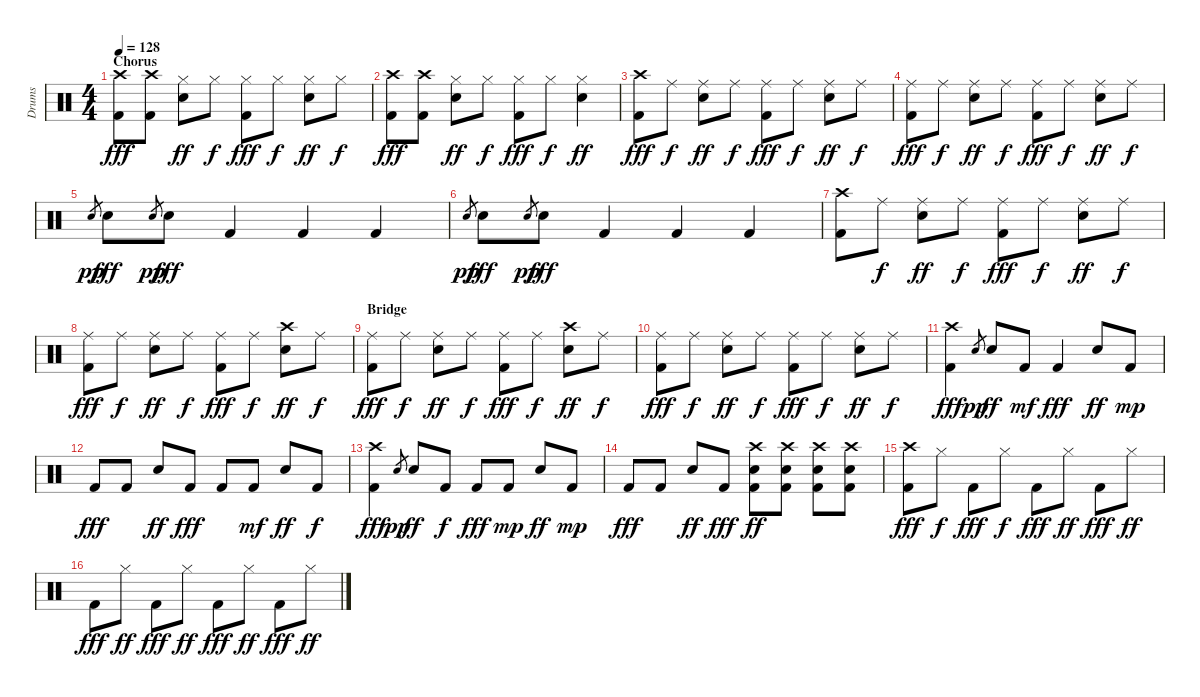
\track ("Drums" "Drums") {instrument percussion}
\staff {score}
\articulation defaults
\ts (4 4)
\section ("" "Chorus")
\tempo 128
\clef neutral
\ks c
("Crash high (hit)" "Kick (hit) 2").8{dy fff} ("Crash high (hit)" "Kick (hit) 2").8 ("Hi-Hat (closed)" "Electric Snare (hit)").8{dy ff} "Hi-Hat (closed)".8{dy f} ("Hi-Hat (closed)" "Kick (hit) 2").8{dy fff} "Hi-Hat (closed)".8{dy f} ("Hi-Hat (closed)" "Electric Snare (hit)").8{dy ff} "Hi-Hat (closed)".8{dy f} |
("Crash high (hit)" "Kick (hit) 2").8{dy fff} ("Crash high (hit)" "Kick (hit) 2").8 ("Hi-Hat (closed)" "Electric Snare (hit)").8{dy ff} "Hi-Hat (closed)".8{dy f} ("Hi-Hat (closed)" "Kick (hit) 2").8{dy fff} "Hi-Hat (closed)".8{dy f} ("Hi-Hat (closed)" "Electric Snare (hit)").4{dy ff} |
("Crash high (hit)" "Kick (hit) 2").8{dy fff} "Ride (middle)".8{dy f} ("Ride (middle)" "Electric Snare (hit)").8{dy ff} "Ride (middle)".8{dy f} ("Ride (middle)" "Kick (hit) 2").8{dy fff} "Ride (middle)".8{dy f} ("Ride (middle)" "Electric Snare (hit)").8{dy ff} "Ride (middle)".8{dy f} |
("Ride (middle)" "Kick (hit) 2").8{dy fff} "Ride (middle)".8{dy f} ("Ride (middle)" "Electric Snare (hit)").8{dy ff} "Ride (middle)".8{dy f} ("Ride (middle)" "Kick (hit) 2").8{dy fff} "Ride (middle)".8{dy f} ("Ride (middle)" "Electric Snare (hit)").8{dy ff} "Ride (middle)".8{dy f} |
"Electric Snare (hit)".8{gr dy pp} "Electric Snare (hit)".8{dy fff} "Electric Snare (hit)".8{gr dy pp} "Electric Snare (hit)".8{dy fff} "Kick (hit) 2".4 "Kick (hit) 2".4 "Kick (hit) 2".4 |
"Electric Snare (hit)".8{gr dy pp} "Electric Snare (hit)".8{dy fff} "Electric Snare (hit)".8{gr dy pp} "Electric Snare (hit)".8{dy fff} "Kick (hit) 2".4 "Kick (hit) 2".4 "Kick (hit) 2".4 |
("Crash high (hit)" "Kick (hit) 2").8 "Ride (middle)".8{dy f} ("Ride (middle)" "Electric Snare (hit)").8{dy ff} "Ride (middle)".8{dy f} ("Ride (middle)" "Kick (hit) 2").8{dy fff} "Ride (middle)".8{dy f} ("Ride (middle)" "Electric Snare (hit)").8{dy ff} "Ride (middle)".8{dy f} |
("Ride (middle)" "Kick (hit) 2").8{dy fff} "Ride (middle)".8{dy f} ("Ride (middle)" "Electric Snare (hit)").8{dy ff} "Ride (middle)".8{dy f} ("Ride (middle)" "Kick (hit) 2").8{dy fff} "Ride (middle)".8{dy f} ("Crash high (hit)" "Electric Snare (hit)").8{dy ff} "Ride (middle)".8{dy f} |
\section ("" "Bridge")
("Ride (middle)" "Kick (hit) 2").8{dy fff} "Ride (middle)".8{dy f} ("Ride (middle)" "Electric Snare (hit)").8{dy ff} "Ride (middle)".8{dy f} ("Ride (middle)" "Kick (hit) 2").8{dy fff} "Ride (middle)".8{dy f} ("Crash high (hit)" "Electric Snare (hit)").8{dy ff} "Ride (middle)".8{dy f} |
("Ride (middle)" "Kick (hit) 2").8{dy fff} "Ride (middle)".8{dy f} ("Ride (middle)" "Electric Snare (hit)").8{dy ff} "Ride (middle)".8{dy f} ("Ride (middle)" "Kick (hit) 2").8{dy fff} "Ride (middle)".8{dy f} ("Ride (middle)" "Electric Snare (hit)").8{dy ff} "Ride (middle)".8{dy f} |
("Crash high (hit)" "Kick (hit) 2").4{dy fff} "Electric Snare (hit)".8{gr dy pp} "Electric Snare (hit)".8{dy ff} "Kick (hit) 2".8{dy mf} "Kick (hit) 2".4{dy fff} "Electric Snare (hit)".8{dy ff} "Kick (hit) 2".8{dy mp} |
"Kick (hit) 2".8{dy fff} "Kick (hit) 2".8 "Electric Snare (hit)".8{dy ff} "Kick (hit) 2".8{dy fff} "Kick (hit) 2".8 "Kick (hit) 2".8{dy mf} "Electric Snare (hit)".8{dy ff} "Kick (hit) 2".8{dy f} |
("Crash high (hit)" "Kick (hit) 2").4{dy fff} "Electric Snare (hit)".8{gr dy pp} "Electric Snare (hit)".8{dy ff} "Kick (hit) 2".8{dy f} "Kick (hit) 2".8{dy fff} "Kick (hit) 2".8{dy mp} "Electric Snare (hit)".8{dy ff} "Kick (hit) 2".8{dy mp} |
"Kick (hit) 2".8{dy fff} "Kick (hit) 2".8 "Electric Snare (hit)".8{dy ff} "Kick (hit) 2".8{dy fff} ("Crash high (hit)" "Electric Snare (hit)" "Kick (hit) 2").8{dy ff} ("Crash high (hit)" "Electric Snare (hit)" "Kick (hit) 2").8 ("Crash high (hit)" "Electric Snare (hit)" "Kick (hit) 2").8 ("Crash high (hit)" "Electric Snare (hit)" "Kick (hit) 2").8 |
("Crash high (hit)" "Kick (hit) 2").8{dy fff} "Hi-Hat (closed)".8{dy f} "Kick (hit) 2".8{dy fff} "Hi-Hat (closed)".8{dy f} "Kick (hit) 2".8{dy fff} "Hi-Hat (closed)".8{dy ff} "Kick (hit) 2".8{dy fff} "Hi-Hat (closed)".8{dy ff} |
"Kick (hit) 2".8{dy fff} "Hi-Hat (closed)".8{dy ff} "Kick (hit) 2".8{dy fff} "Hi-Hat (closed)".8{dy ff} "Kick (hit) 2".8{dy fff} "Hi-Hat (closed)".8{dy ff} "Kick (hit) 2".8{dy fff} "Hi-Hat (closed)".8{dy ff}
